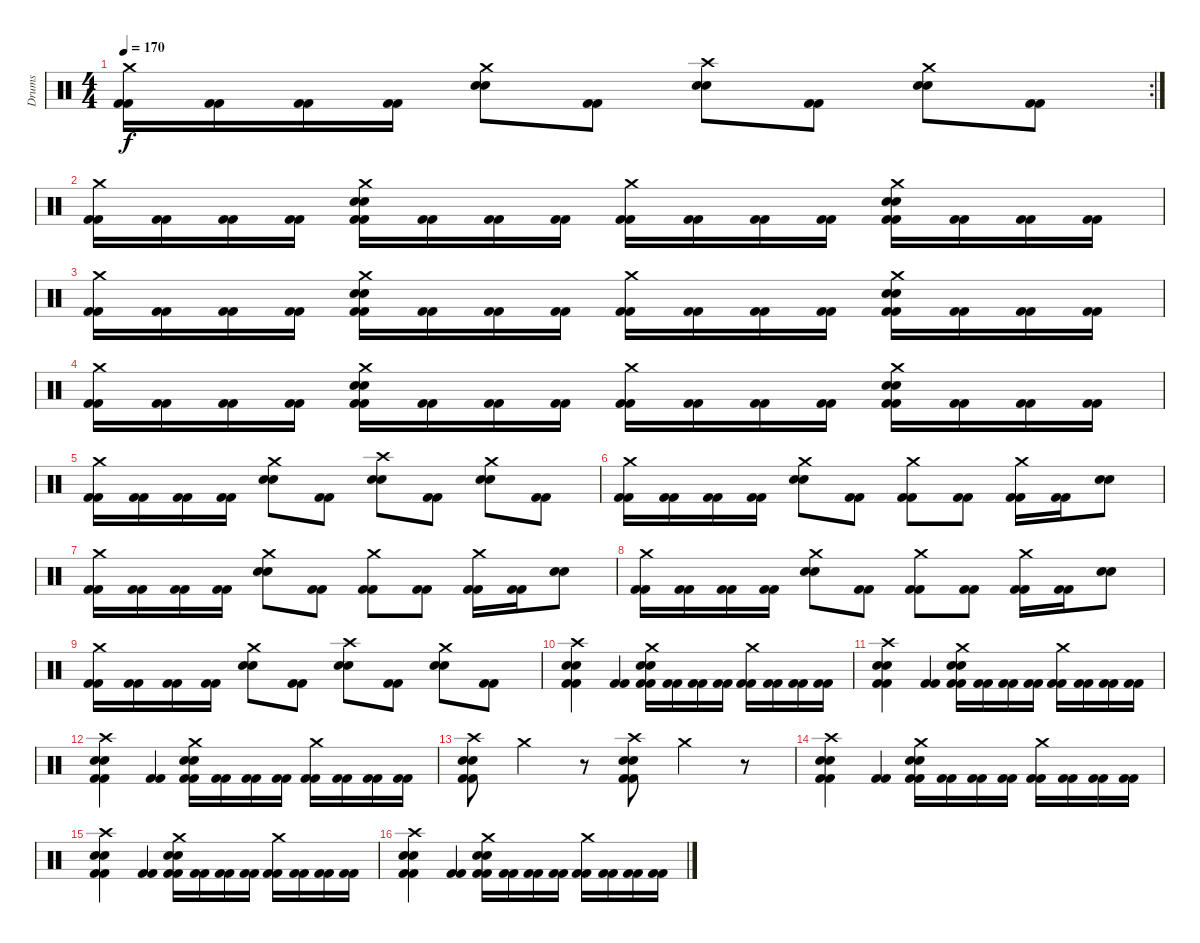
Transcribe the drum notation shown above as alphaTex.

\track ("Drums" "Drums") {instrument percussion}
\staff {score}
\articulation defaults
\rc 2
\ts (4 4)
\tempo 170
\clef neutral
\ks c
("Crash medium (hit)" "Kick (hit) 2" "Kick (hit) 2").16{dy f} ("Kick (hit) 2" "Kick (hit) 2").16 ("Kick (hit) 2" "Kick (hit) 2").16 ("Kick (hit) 2" "Kick (hit) 2").16 ("Crash medium (hit)" "Snare (hit) 2" "Snare (hit) 2").8 ("Kick (hit) 2" "Kick (hit) 2").8 ("Crash high (hit)" "Snare (hit) 2" "Snare (hit) 2").8 ("Kick (hit) 2" "Kick (hit) 2").8 ("Crash medium (hit)" "Snare (hit) 2" "Snare (hit) 2").8 ("Kick (hit) 2" "Kick (hit) 2").8 |
("Crash medium (hit)" "Kick (hit) 2" "Kick (hit) 2").16 ("Kick (hit) 2" "Kick (hit) 2").16 ("Kick (hit) 2" "Kick (hit) 2").16 ("Kick (hit) 2" "Kick (hit) 2").16 ("Crash medium (hit)" "Kick (hit) 2" "Kick (hit) 2" "Snare (hit) 2" "Snare (hit) 2").16 ("Kick (hit) 2" "Kick (hit) 2").16 ("Kick (hit) 2" "Kick (hit) 2").16 ("Kick (hit) 2" "Kick (hit) 2").16 ("Crash medium (hit)" "Kick (hit) 2" "Kick (hit) 2").16 ("Kick (hit) 2" "Kick (hit) 2").16 ("Kick (hit) 2" "Kick (hit) 2").16 ("Kick (hit) 2" "Kick (hit) 2").16 ("Crash medium (hit)" "Kick (hit) 2" "Kick (hit) 2" "Snare (hit) 2" "Snare (hit) 2").16 ("Kick (hit) 2" "Kick (hit) 2").16 ("Kick (hit) 2" "Kick (hit) 2").16 ("Kick (hit) 2" "Kick (hit) 2").16 |
("Crash medium (hit)" "Kick (hit) 2" "Kick (hit) 2").16 ("Kick (hit) 2" "Kick (hit) 2").16 ("Kick (hit) 2" "Kick (hit) 2").16 ("Kick (hit) 2" "Kick (hit) 2").16 ("Crash medium (hit)" "Kick (hit) 2" "Kick (hit) 2" "Snare (hit) 2" "Snare (hit) 2").16 ("Kick (hit) 2" "Kick (hit) 2").16 ("Kick (hit) 2" "Kick (hit) 2").16 ("Kick (hit) 2" "Kick (hit) 2").16 ("Crash medium (hit)" "Kick (hit) 2" "Kick (hit) 2").16 ("Kick (hit) 2" "Kick (hit) 2").16 ("Kick (hit) 2" "Kick (hit) 2").16 ("Kick (hit) 2" "Kick (hit) 2").16 ("Crash medium (hit)" "Kick (hit) 2" "Kick (hit) 2" "Snare (hit) 2" "Snare (hit) 2").16 ("Kick (hit) 2" "Kick (hit) 2").16 ("Kick (hit) 2" "Kick (hit) 2").16 ("Kick (hit) 2" "Kick (hit) 2").16 |
("Crash medium (hit)" "Kick (hit) 2" "Kick (hit) 2").16 ("Kick (hit) 2" "Kick (hit) 2").16 ("Kick (hit) 2" "Kick (hit) 2").16 ("Kick (hit) 2" "Kick (hit) 2").16 ("Crash medium (hit)" "Kick (hit) 2" "Kick (hit) 2" "Snare (hit) 2" "Snare (hit) 2").16 ("Kick (hit) 2" "Kick (hit) 2").16 ("Kick (hit) 2" "Kick (hit) 2").16 ("Kick (hit) 2" "Kick (hit) 2").16 ("Crash medium (hit)" "Kick (hit) 2" "Kick (hit) 2").16 ("Kick (hit) 2" "Kick (hit) 2").16 ("Kick (hit) 2" "Kick (hit) 2").16 ("Kick (hit) 2" "Kick (hit) 2").16 ("Crash medium (hit)" "Kick (hit) 2" "Kick (hit) 2" "Snare (hit) 2" "Snare (hit) 2").16 ("Kick (hit) 2" "Kick (hit) 2").16 ("Kick (hit) 2" "Kick (hit) 2").16 ("Kick (hit) 2" "Kick (hit) 2").16 |
("Crash medium (hit)" "Kick (hit) 2" "Kick (hit) 2").16 ("Kick (hit) 2" "Kick (hit) 2").16 ("Kick (hit) 2" "Kick (hit) 2").16 ("Kick (hit) 2" "Kick (hit) 2").16 ("Crash medium (hit)" "Snare (hit) 2" "Snare (hit) 2").8 ("Kick (hit) 2" "Kick (hit) 2").8 ("Crash high (hit)" "Snare (hit) 2" "Snare (hit) 2").8 ("Kick (hit) 2" "Kick (hit) 2").8 ("Crash medium (hit)" "Snare (hit) 2" "Snare (hit) 2").8 ("Kick (hit) 2" "Kick (hit) 2").8 |
("Crash medium (hit)" "Kick (hit) 2" "Kick (hit) 2").16 ("Kick (hit) 2" "Kick (hit) 2").16 ("Kick (hit) 2" "Kick (hit) 2").16 ("Kick (hit) 2" "Kick (hit) 2").16 ("Crash medium (hit)" "Snare (hit) 2" "Snare (hit) 2").8 ("Kick (hit) 2" "Kick (hit) 2").8 ("Crash medium (hit)" "Kick (hit) 2" "Kick (hit) 2").8 ("Kick (hit) 2" "Kick (hit) 2").8 ("Crash medium (hit)" "Kick (hit) 2" "Kick (hit) 2").16 ("Kick (hit) 2" "Kick (hit) 2").16 ("Snare (hit) 2" "Snare (hit) 2").8 |
("Crash medium (hit)" "Kick (hit) 2" "Kick (hit) 2").16 ("Kick (hit) 2" "Kick (hit) 2").16 ("Kick (hit) 2" "Kick (hit) 2").16 ("Kick (hit) 2" "Kick (hit) 2").16 ("Crash medium (hit)" "Snare (hit) 2" "Snare (hit) 2").8 ("Kick (hit) 2" "Kick (hit) 2").8 ("Crash medium (hit)" "Kick (hit) 2" "Kick (hit) 2").8 ("Kick (hit) 2" "Kick (hit) 2").8 ("Crash medium (hit)" "Kick (hit) 2" "Kick (hit) 2").16 ("Kick (hit) 2" "Kick (hit) 2").16 ("Snare (hit) 2" "Snare (hit) 2").8 |
("Crash medium (hit)" "Kick (hit) 2" "Kick (hit) 2").16 ("Kick (hit) 2" "Kick (hit) 2").16 ("Kick (hit) 2" "Kick (hit) 2").16 ("Kick (hit) 2" "Kick (hit) 2").16 ("Crash medium (hit)" "Snare (hit) 2" "Snare (hit) 2").8 ("Kick (hit) 2" "Kick (hit) 2").8 ("Crash medium (hit)" "Kick (hit) 2" "Kick (hit) 2").8 ("Kick (hit) 2" "Kick (hit) 2").8 ("Crash medium (hit)" "Kick (hit) 2" "Kick (hit) 2").16 ("Kick (hit) 2" "Kick (hit) 2").16 ("Snare (hit) 2" "Snare (hit) 2").8 |
("Crash medium (hit)" "Kick (hit) 2" "Kick (hit) 2").16 ("Kick (hit) 2" "Kick (hit) 2").16 ("Kick (hit) 2" "Kick (hit) 2").16 ("Kick (hit) 2" "Kick (hit) 2").16 ("Crash medium (hit)" "Snare (hit) 2" "Snare (hit) 2").8 ("Kick (hit) 2" "Kick (hit) 2").8 ("Crash high (hit)" "Snare (hit) 2" "Snare (hit) 2").8 ("Kick (hit) 2" "Kick (hit) 2").8 ("Crash medium (hit)" "Snare (hit) 2" "Snare (hit) 2").8 ("Kick (hit) 2" "Kick (hit) 2").8 |
("Snare (hit) 2" "Snare (hit) 2" "Crash high (hit)" "Kick (hit) 2" "Kick (hit) 2").4 ("Kick (hit) 2" "Kick (hit) 2").4 ("Crash medium (hit)" "Snare (hit) 2" "Snare (hit) 2" "Kick (hit) 2" "Kick (hit) 2").16 ("Kick (hit) 2" "Kick (hit) 2").16 ("Kick (hit) 2" "Kick (hit) 2").16 ("Kick (hit) 2" "Kick (hit) 2").16 ("Crash medium (hit)" "Kick (hit) 2" "Kick (hit) 2").16 ("Kick (hit) 2" "Kick (hit) 2").16 ("Kick (hit) 2" "Kick (hit) 2").16 ("Kick (hit) 2" "Kick (hit) 2").16 |
("Snare (hit) 2" "Snare (hit) 2" "Crash high (hit)" "Kick (hit) 2" "Kick (hit) 2").4 ("Kick (hit) 2" "Kick (hit) 2").4 ("Crash medium (hit)" "Snare (hit) 2" "Snare (hit) 2" "Kick (hit) 2" "Kick (hit) 2").16 ("Kick (hit) 2" "Kick (hit) 2").16 ("Kick (hit) 2" "Kick (hit) 2").16 ("Kick (hit) 2" "Kick (hit) 2").16 ("Crash medium (hit)" "Kick (hit) 2" "Kick (hit) 2").16 ("Kick (hit) 2" "Kick (hit) 2").16 ("Kick (hit) 2" "Kick (hit) 2").16 ("Kick (hit) 2" "Kick (hit) 2").16 |
("Snare (hit) 2" "Snare (hit) 2" "Crash high (hit)" "Kick (hit) 2" "Kick (hit) 2").4 ("Kick (hit) 2" "Kick (hit) 2").4 ("Crash medium (hit)" "Snare (hit) 2" "Snare (hit) 2" "Kick (hit) 2" "Kick (hit) 2").16 ("Kick (hit) 2" "Kick (hit) 2").16 ("Kick (hit) 2" "Kick (hit) 2").16 ("Kick (hit) 2" "Kick (hit) 2").16 ("Crash medium (hit)" "Kick (hit) 2" "Kick (hit) 2").16 ("Kick (hit) 2" "Kick (hit) 2").16 ("Kick (hit) 2" "Kick (hit) 2").16 ("Kick (hit) 2" "Kick (hit) 2").16 |
("Crash high (hit)" "Kick (hit) 2" "Kick (hit) 2" "Snare (hit) 2" "Snare (hit) 2").8 "Crash medium (hit)".4 r.8 ("Crash high (hit)" "Snare (hit) 2" "Snare (hit) 2" "Kick (hit) 2" "Kick (hit) 2").8 "Crash medium (hit)".4 r.8 |
("Snare (hit) 2" "Snare (hit) 2" "Crash high (hit)" "Kick (hit) 2" "Kick (hit) 2").4 ("Kick (hit) 2" "Kick (hit) 2").4 ("Crash medium (hit)" "Snare (hit) 2" "Snare (hit) 2" "Kick (hit) 2" "Kick (hit) 2").16 ("Kick (hit) 2" "Kick (hit) 2").16 ("Kick (hit) 2" "Kick (hit) 2").16 ("Kick (hit) 2" "Kick (hit) 2").16 ("Crash medium (hit)" "Kick (hit) 2" "Kick (hit) 2").16 ("Kick (hit) 2" "Kick (hit) 2").16 ("Kick (hit) 2" "Kick (hit) 2").16 ("Kick (hit) 2" "Kick (hit) 2").16 |
("Snare (hit) 2" "Snare (hit) 2" "Crash high (hit)" "Kick (hit) 2" "Kick (hit) 2").4 ("Kick (hit) 2" "Kick (hit) 2").4 ("Crash medium (hit)" "Snare (hit) 2" "Snare (hit) 2" "Kick (hit) 2" "Kick (hit) 2").16 ("Kick (hit) 2" "Kick (hit) 2").16 ("Kick (hit) 2" "Kick (hit) 2").16 ("Kick (hit) 2" "Kick (hit) 2").16 ("Crash medium (hit)" "Kick (hit) 2" "Kick (hit) 2").16 ("Kick (hit) 2" "Kick (hit) 2").16 ("Kick (hit) 2" "Kick (hit) 2").16 ("Kick (hit) 2" "Kick (hit) 2").16 |
("Snare (hit) 2" "Snare (hit) 2" "Crash high (hit)" "Kick (hit) 2" "Kick (hit) 2").4 ("Kick (hit) 2" "Kick (hit) 2").4 ("Crash medium (hit)" "Snare (hit) 2" "Snare (hit) 2" "Kick (hit) 2" "Kick (hit) 2").16 ("Kick (hit) 2" "Kick (hit) 2").16 ("Kick (hit) 2" "Kick (hit) 2").16 ("Kick (hit) 2" "Kick (hit) 2").16 ("Crash medium (hit)" "Kick (hit) 2" "Kick (hit) 2").16 ("Kick (hit) 2" "Kick (hit) 2").16 ("Kick (hit) 2" "Kick (hit) 2").16 ("Kick (hit) 2" "Kick (hit) 2").16
